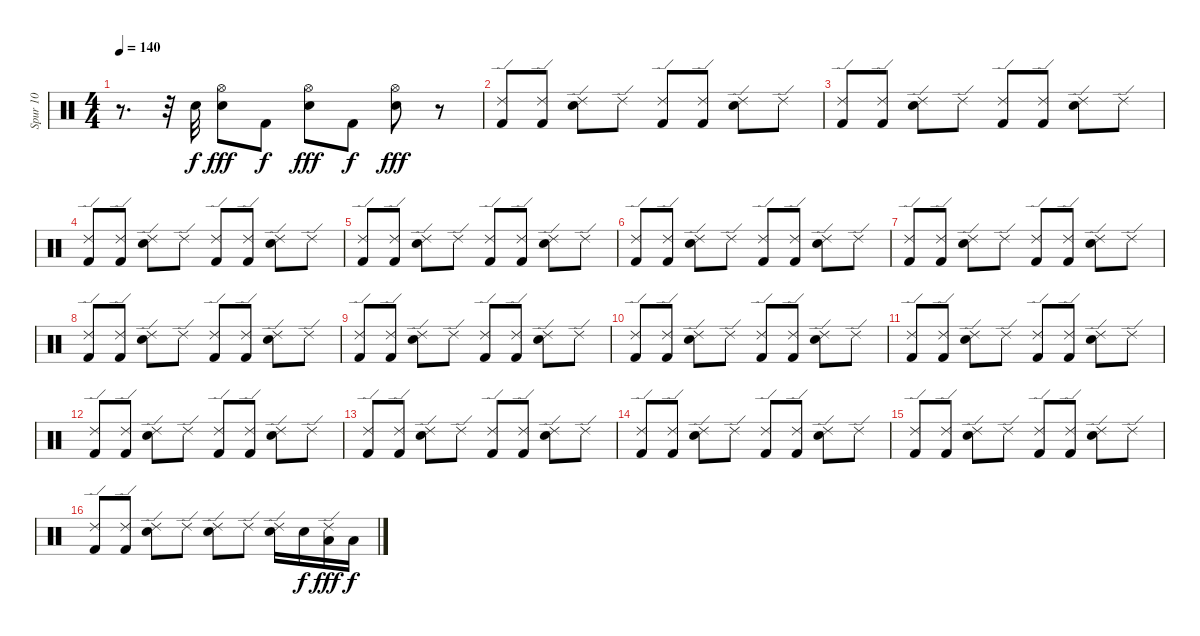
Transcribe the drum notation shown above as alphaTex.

\track ("Spur 10" "Spur 10") {instrument percussion}
\staff {score}
\articulation defaults
\ts (4 4)
\tempo 140
\clef neutral
\ks c
r.8{d dy f} r.32 "Electric Snare (hit)".32 ("Hi-Hat (open)" "Electric Snare (hit)").8{dy fff} "Kick (hit) 2".8{dy f} ("Hi-Hat (open)" "Electric Snare (hit)").8{dy fff} "Kick (hit) 2".8{dy f} ("Hi-Hat (open)" "Electric Snare (hit)").8{dy fff} r.8 |
("Ride (edge) 2" "Kick (hit) 2").8 ("Ride (edge) 2" "Kick (hit) 2").8 ("Ride (edge) 2" "Electric Snare (hit)").8 "Ride (edge) 2".8 ("Ride (edge) 2" "Kick (hit) 2").8 ("Ride (edge) 2" "Kick (hit) 2").8 ("Ride (edge) 2" "Electric Snare (hit)").8 "Ride (edge) 2".8 |
("Ride (edge) 2" "Kick (hit) 2").8 ("Ride (edge) 2" "Kick (hit) 2").8 ("Ride (edge) 2" "Electric Snare (hit)").8 "Ride (edge) 2".8 ("Ride (edge) 2" "Kick (hit) 2").8 ("Ride (edge) 2" "Kick (hit) 2").8 ("Ride (edge) 2" "Electric Snare (hit)").8 "Ride (edge) 2".8 |
("Ride (edge) 2" "Kick (hit) 2").8 ("Ride (edge) 2" "Kick (hit) 2").8 ("Ride (edge) 2" "Electric Snare (hit)").8 "Ride (edge) 2".8 ("Ride (edge) 2" "Kick (hit) 2").8 ("Ride (edge) 2" "Kick (hit) 2").8 ("Ride (edge) 2" "Electric Snare (hit)").8 "Ride (edge) 2".8 |
("Ride (edge) 2" "Kick (hit) 2").8 ("Ride (edge) 2" "Kick (hit) 2").8 ("Ride (edge) 2" "Electric Snare (hit)").8 "Ride (edge) 2".8 ("Ride (edge) 2" "Kick (hit) 2").8 ("Ride (edge) 2" "Kick (hit) 2").8 ("Ride (edge) 2" "Electric Snare (hit)").8 "Ride (edge) 2".8 |
("Ride (edge) 2" "Kick (hit) 2").8 ("Ride (edge) 2" "Kick (hit) 2").8 ("Ride (edge) 2" "Electric Snare (hit)").8 "Ride (edge) 2".8 ("Ride (edge) 2" "Kick (hit) 2").8 ("Ride (edge) 2" "Kick (hit) 2").8 ("Ride (edge) 2" "Electric Snare (hit)").8 "Ride (edge) 2".8 |
("Ride (edge) 2" "Kick (hit) 2").8 ("Ride (edge) 2" "Kick (hit) 2").8 ("Ride (edge) 2" "Electric Snare (hit)").8 "Ride (edge) 2".8 ("Ride (edge) 2" "Kick (hit) 2").8 ("Ride (edge) 2" "Kick (hit) 2").8 ("Ride (edge) 2" "Electric Snare (hit)").8 "Ride (edge) 2".8 |
("Ride (edge) 2" "Kick (hit) 2").8 ("Ride (edge) 2" "Kick (hit) 2").8 ("Ride (edge) 2" "Electric Snare (hit)").8 "Ride (edge) 2".8 ("Ride (edge) 2" "Kick (hit) 2").8 ("Ride (edge) 2" "Kick (hit) 2").8 ("Ride (edge) 2" "Electric Snare (hit)").8 "Ride (edge) 2".8 |
("Ride (edge) 2" "Kick (hit) 2").8 ("Ride (edge) 2" "Kick (hit) 2").8 ("Ride (edge) 2" "Electric Snare (hit)").8 "Ride (edge) 2".8 ("Ride (edge) 2" "Kick (hit) 2").8 ("Ride (edge) 2" "Kick (hit) 2").8 ("Ride (edge) 2" "Electric Snare (hit)").8 "Ride (edge) 2".8 |
("Ride (edge) 2" "Kick (hit) 2").8 ("Ride (edge) 2" "Kick (hit) 2").8 ("Ride (edge) 2" "Electric Snare (hit)").8 "Ride (edge) 2".8 ("Ride (edge) 2" "Kick (hit) 2").8 ("Ride (edge) 2" "Kick (hit) 2").8 ("Ride (edge) 2" "Electric Snare (hit)").8 "Ride (edge) 2".8 |
("Ride (edge) 2" "Kick (hit) 2").8 ("Ride (edge) 2" "Kick (hit) 2").8 ("Ride (edge) 2" "Electric Snare (hit)").8 "Ride (edge) 2".8 ("Ride (edge) 2" "Kick (hit) 2").8 ("Ride (edge) 2" "Kick (hit) 2").8 ("Ride (edge) 2" "Electric Snare (hit)").8 "Ride (edge) 2".8 |
("Ride (edge) 2" "Kick (hit) 2").8 ("Ride (edge) 2" "Kick (hit) 2").8 ("Ride (edge) 2" "Electric Snare (hit)").8 "Ride (edge) 2".8 ("Ride (edge) 2" "Kick (hit) 2").8 ("Ride (edge) 2" "Kick (hit) 2").8 ("Ride (edge) 2" "Electric Snare (hit)").8 "Ride (edge) 2".8 |
("Ride (edge) 2" "Kick (hit) 2").8 ("Ride (edge) 2" "Kick (hit) 2").8 ("Ride (edge) 2" "Electric Snare (hit)").8 "Ride (edge) 2".8 ("Ride (edge) 2" "Kick (hit) 2").8 ("Ride (edge) 2" "Kick (hit) 2").8 ("Ride (edge) 2" "Electric Snare (hit)").8 "Ride (edge) 2".8 |
("Ride (edge) 2" "Kick (hit) 2").8 ("Ride (edge) 2" "Kick (hit) 2").8 ("Ride (edge) 2" "Electric Snare (hit)").8 "Ride (edge) 2".8 ("Ride (edge) 2" "Kick (hit) 2").8 ("Ride (edge) 2" "Kick (hit) 2").8 ("Ride (edge) 2" "Electric Snare (hit)").8 "Ride (edge) 2".8 |
("Ride (edge) 2" "Kick (hit) 2").8 ("Ride (edge) 2" "Kick (hit) 2").8 ("Ride (edge) 2" "Electric Snare (hit)").8 "Ride (edge) 2".8 ("Ride (edge) 2" "Kick (hit) 2").8 ("Ride (edge) 2" "Kick (hit) 2").8 ("Ride (edge) 2" "Electric Snare (hit)").8 "Ride (edge) 2".8 |
("Ride (edge) 2" "Kick (hit) 2").8 ("Ride (edge) 2" "Kick (hit) 2").8 ("Ride (edge) 2" "Electric Snare (hit)").8 "Ride (edge) 2".8 ("Ride (edge) 2" "Electric Snare (hit)").8 "Ride (edge) 2".8 ("Ride (edge) 2" "Snare (hit) 2").16 "Snare (hit) 2".16{dy f} ("Ride (edge) 2" "Low Tom (hit)").16{dy fff} "Low Tom (hit)".16{dy f}
